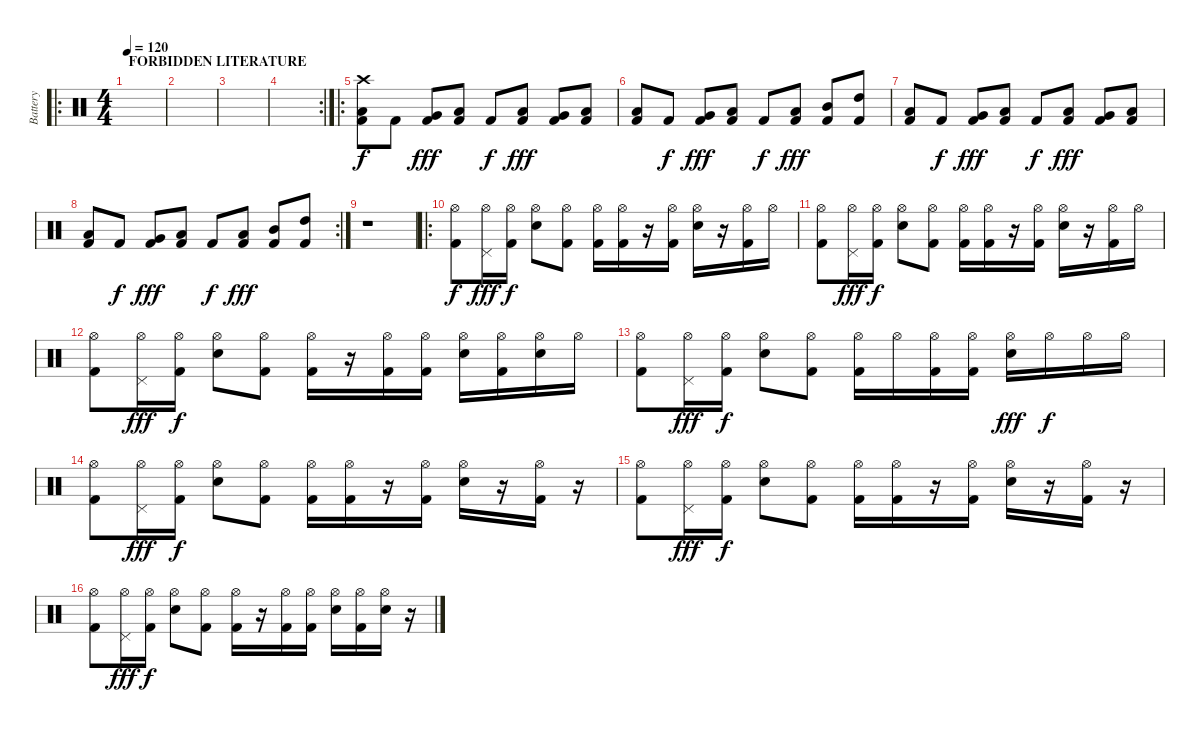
\track ("Battery" "Battery") {instrument percussion}
\staff {score}
\articulation defaults
\ro
\ts (4 4)
\section ("" "FORBIDDEN LITERATURE")
\tempo 120
\clef neutral
\ks c
|
|
|
\rc 2
|
\ro
("Crash high (hit)" "Kick (hit) 2" "Low Floor Tom (hit)").8 "Kick (hit) 2".8{dy f} ("Kick (hit) 2" "Very Low Tom (hit)").8{dy fff} ("Kick (hit) 2" "Low Floor Tom (hit)").8 "Kick (hit) 2".8{dy f} ("Kick (hit) 2" "Low Tom (hit)").8{dy fff} ("Kick (hit) 2" "Very Low Tom (hit)").8 ("Kick (hit) 2" "Low Floor Tom (hit)").8 |
("Kick (hit) 2" "Low Floor Tom (hit)").8 "Kick (hit) 2".8{dy f} ("Kick (hit) 2" "Very Low Tom (hit)").8{dy fff} ("Kick (hit) 2" "Low Floor Tom (hit)").8 "Kick (hit) 2".8{dy f} ("Kick (hit) 2" "Low Tom (hit)").8{dy fff} ("Kick (hit) 2" "Mid Tom (hit)").8 ("Kick (hit) 2" "High Tom (hit)").8 |
("Kick (hit) 2" "Low Floor Tom (hit)").8 "Kick (hit) 2".8{dy f} ("Kick (hit) 2" "Very Low Tom (hit)").8{dy fff} ("Kick (hit) 2" "Low Floor Tom (hit)").8 "Kick (hit) 2".8{dy f} ("Kick (hit) 2" "Low Tom (hit)").8{dy fff} ("Kick (hit) 2" "Very Low Tom (hit)").8 ("Kick (hit) 2" "Low Floor Tom (hit)").8 |
\rc 2
("Kick (hit) 2" "Low Floor Tom (hit)").8 "Kick (hit) 2".8{dy f} ("Kick (hit) 2" "Very Low Tom (hit)").8{dy fff} ("Kick (hit) 2" "Low Floor Tom (hit)").8 "Kick (hit) 2".8{dy f} ("Kick (hit) 2" "Low Tom (hit)").8{dy fff} ("Kick (hit) 2" "Mid Tom (hit)").8 ("Kick (hit) 2" "High Tom (hit)").8 |
r.1 |
\ro
("Hi-Hat (open)" "Kick (hit) 2").8{dy f} ("Hi-Hat (open)" "Pedal Hi-Hat (hit)").16{dy fff} ("Hi-Hat (open)" "Kick (hit) 2").16{dy f} ("Hi-Hat (open)" "Electric Snare (hit)").8 ("Hi-Hat (open)" "Kick (hit) 2").8 ("Hi-Hat (open)" "Kick (hit) 2").16 ("Hi-Hat (open)" "Kick (hit) 2").16 r.16 ("Hi-Hat (open)" "Kick (hit) 2").16 ("Hi-Hat (open)" "Electric Snare (hit)").16 r.16 ("Hi-Hat (open)" "Kick (hit) 2").16 "Hi-Hat (open)".16 |
("Hi-Hat (open)" "Kick (hit) 2").8 ("Hi-Hat (open)" "Pedal Hi-Hat (hit)").16{dy fff} ("Hi-Hat (open)" "Kick (hit) 2").16{dy f} ("Hi-Hat (open)" "Electric Snare (hit)").8 ("Hi-Hat (open)" "Kick (hit) 2").8 ("Hi-Hat (open)" "Kick (hit) 2").16 ("Hi-Hat (open)" "Kick (hit) 2").16 r.16 ("Hi-Hat (open)" "Kick (hit) 2").16 ("Hi-Hat (open)" "Electric Snare (hit)").16 r.16 ("Hi-Hat (open)" "Kick (hit) 2").16 "Hi-Hat (open)".16 |
("Hi-Hat (open)" "Kick (hit) 2").8 ("Hi-Hat (open)" "Pedal Hi-Hat (hit)").16{dy fff} ("Hi-Hat (open)" "Kick (hit) 2").16{dy f} ("Hi-Hat (open)" "Electric Snare (hit)").8 ("Hi-Hat (open)" "Kick (hit) 2").8 ("Hi-Hat (open)" "Kick (hit) 2").16 r.16 ("Hi-Hat (open)" "Kick (hit) 2").16 ("Hi-Hat (open)" "Kick (hit) 2").16 ("Hi-Hat (open)" "Electric Snare (hit)").16 ("Hi-Hat (open)" "Kick (hit) 2").16 ("Hi-Hat (open)" "Electric Snare (hit)").16 "Hi-Hat (open)".16 |
("Hi-Hat (open)" "Kick (hit) 2").8 ("Hi-Hat (open)" "Pedal Hi-Hat (hit)").16{dy fff} ("Hi-Hat (open)" "Kick (hit) 2").16{dy f} ("Hi-Hat (open)" "Electric Snare (hit)").8 ("Hi-Hat (open)" "Kick (hit) 2").8 ("Hi-Hat (open)" "Kick (hit) 2").16 "Hi-Hat (open)".16 ("Hi-Hat (open)" "Kick (hit) 2").16 ("Hi-Hat (open)" "Kick (hit) 2").16 ("Hi-Hat (open)" "Electric Snare (hit)").16{dy fff} "Hi-Hat (open)".16{dy f} "Hi-Hat (open)".16 "Hi-Hat (open)".16 |
("Hi-Hat (open)" "Kick (hit) 2").8 ("Hi-Hat (open)" "Pedal Hi-Hat (hit)").16{dy fff} ("Hi-Hat (open)" "Kick (hit) 2").16{dy f} ("Hi-Hat (open)" "Electric Snare (hit)").8 ("Hi-Hat (open)" "Kick (hit) 2").8 ("Hi-Hat (open)" "Kick (hit) 2").16 ("Hi-Hat (open)" "Kick (hit) 2").16 r.16 ("Hi-Hat (open)" "Kick (hit) 2").16 ("Hi-Hat (open)" "Electric Snare (hit)").16 r.16 ("Hi-Hat (open)" "Kick (hit) 2").16 r.16 |
("Hi-Hat (open)" "Kick (hit) 2").8 ("Hi-Hat (open)" "Pedal Hi-Hat (hit)").16{dy fff} ("Hi-Hat (open)" "Kick (hit) 2").16{dy f} ("Hi-Hat (open)" "Electric Snare (hit)").8 ("Hi-Hat (open)" "Kick (hit) 2").8 ("Hi-Hat (open)" "Kick (hit) 2").16 ("Hi-Hat (open)" "Kick (hit) 2").16 r.16 ("Hi-Hat (open)" "Kick (hit) 2").16 ("Hi-Hat (open)" "Electric Snare (hit)").16 r.16 ("Hi-Hat (open)" "Kick (hit) 2").16 r.16 |
("Hi-Hat (open)" "Kick (hit) 2").8 ("Hi-Hat (open)" "Pedal Hi-Hat (hit)").16{dy fff} ("Hi-Hat (open)" "Kick (hit) 2").16{dy f} ("Hi-Hat (open)" "Electric Snare (hit)").8 ("Hi-Hat (open)" "Kick (hit) 2").8 ("Hi-Hat (open)" "Kick (hit) 2").16 r.16 ("Hi-Hat (open)" "Kick (hit) 2").16 ("Hi-Hat (open)" "Kick (hit) 2").16 ("Hi-Hat (open)" "Electric Snare (hit)").16 ("Hi-Hat (open)" "Kick (hit) 2").16 ("Hi-Hat (open)" "Electric Snare (hit)").16 r.16
